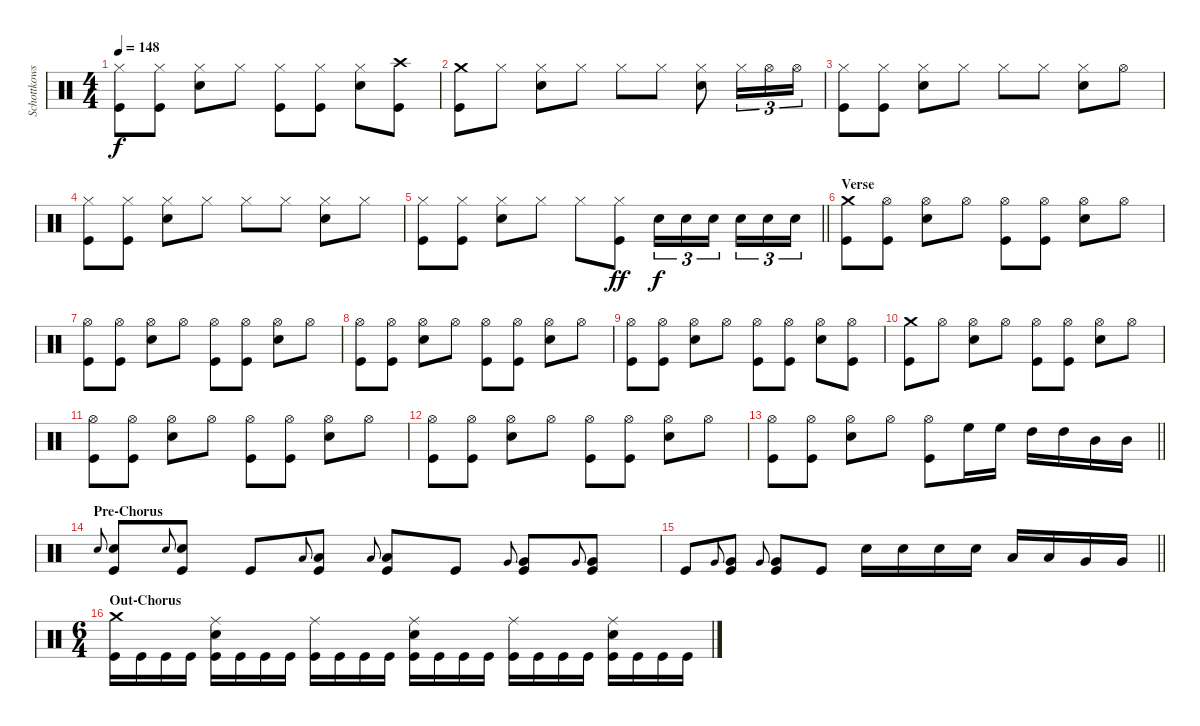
\track ("Schottkowski" "Schottkows") {instrument percussion}
\staff {score}
\articulation defaults
\ts (4 4)
\tempo 148
\clef neutral
\ks c
("Hi-Hat (closed)" "Kick (hit)").8{dy f} ("Hi-Hat (closed)" "Kick (hit)").8 ("Hi-Hat (closed)" "Electric Snare (hit)").8 "Hi-Hat (closed)".8 ("Hi-Hat (closed)" "Kick (hit)").8 ("Hi-Hat (closed)" "Kick (hit)").8 ("Hi-Hat (closed)" "Electric Snare (hit)").8 ("Crash high (hit)" "Kick (hit)").8 |
("Crash medium (hit)" "Kick (hit)").8 "Hi-Hat (closed)".8 ("Hi-Hat (closed)" "Electric Snare (hit)").8 "Hi-Hat (closed)".8 "Hi-Hat (closed)".8 "Hi-Hat (closed)".8 ("Hi-Hat (closed)" "Electric Snare (hit)").8 "Hi-Hat (closed)".16{tu (3 2)} "Hi-Hat (open)".16{tu (3 2)} "Hi-Hat (open)".16{tu (3 2)} |
("Hi-Hat (closed)" "Kick (hit)").8 ("Hi-Hat (closed)" "Kick (hit)").8 ("Hi-Hat (closed)" "Electric Snare (hit)").8 "Hi-Hat (closed)".8 "Hi-Hat (closed)".8 "Hi-Hat (closed)".8 ("Hi-Hat (closed)" "Electric Snare (hit)").8 "Hi-Hat (open)".8 |
("Hi-Hat (closed)" "Kick (hit)").8 ("Hi-Hat (closed)" "Kick (hit)").8 ("Hi-Hat (closed)" "Electric Snare (hit)").8 "Hi-Hat (closed)".8 "Hi-Hat (closed)".8 "Hi-Hat (closed)".8 ("Hi-Hat (closed)" "Electric Snare (hit)").8 "Hi-Hat (closed)".8 |
\barLineRight lightlight
("Hi-Hat (closed)" "Kick (hit)").8 ("Hi-Hat (closed)" "Kick (hit)").8 ("Hi-Hat (closed)" "Electric Snare (hit)").8 "Hi-Hat (closed)".8 "Hi-Hat (closed)".8 ("Hi-Hat (closed)" "Kick (hit)").8{dy ff} "Electric Snare (hit)".16{tu (3 2) dy f} "Electric Snare (hit)".16{tu (3 2)} "Electric Snare (hit)".16{tu (3 2) beam splitsecondary} "Electric Snare (hit)".16{tu (3 2)} "Electric Snare (hit)".16{tu (3 2)} "Electric Snare (hit)".16{tu (3 2)} |
\section ("" "Verse")
("Crash medium (hit)" "Kick (hit)").8 ("Hi-Hat (open)" "Kick (hit)").8 ("Hi-Hat (open)" "Electric Snare (hit)").8 "Hi-Hat (open)".8 ("Hi-Hat (open)" "Kick (hit)").8 ("Hi-Hat (open)" "Kick (hit)").8 ("Hi-Hat (open)" "Electric Snare (hit)").8 "Hi-Hat (open)".8 |
("Hi-Hat (open)" "Kick (hit)").8 ("Hi-Hat (open)" "Kick (hit)").8 ("Hi-Hat (open)" "Electric Snare (hit)").8 "Hi-Hat (open)".8 ("Hi-Hat (open)" "Kick (hit)").8 ("Hi-Hat (open)" "Kick (hit)").8 ("Hi-Hat (open)" "Electric Snare (hit)").8 "Hi-Hat (open)".8 |
("Hi-Hat (open)" "Kick (hit)").8 ("Hi-Hat (open)" "Kick (hit)").8 ("Hi-Hat (open)" "Electric Snare (hit)").8 "Hi-Hat (open)".8 ("Hi-Hat (open)" "Kick (hit)").8 ("Hi-Hat (open)" "Kick (hit)").8 ("Hi-Hat (open)" "Electric Snare (hit)").8 "Hi-Hat (open)".8 |
("Hi-Hat (open)" "Kick (hit)").8 ("Hi-Hat (open)" "Kick (hit)").8 ("Hi-Hat (open)" "Electric Snare (hit)").8 "Hi-Hat (open)".8 ("Hi-Hat (open)" "Kick (hit)").8 ("Hi-Hat (open)" "Kick (hit)").8 ("Hi-Hat (open)" "Electric Snare (hit)").8 ("Hi-Hat (open)" "Kick (hit)").8 |
("Crash medium (hit)" "Kick (hit)").8 "Hi-Hat (open)".8 ("Hi-Hat (open)" "Electric Snare (hit)").8 "Hi-Hat (open)".8 ("Hi-Hat (open)" "Kick (hit)").8 ("Hi-Hat (open)" "Kick (hit)").8 ("Hi-Hat (open)" "Electric Snare (hit)").8 "Hi-Hat (open)".8 |
("Hi-Hat (open)" "Kick (hit)").8 ("Hi-Hat (open)" "Kick (hit)").8 ("Hi-Hat (open)" "Electric Snare (hit)").8 "Hi-Hat (open)".8 ("Hi-Hat (open)" "Kick (hit)").8 ("Hi-Hat (open)" "Kick (hit)").8 ("Hi-Hat (open)" "Electric Snare (hit)").8 "Hi-Hat (open)".8 |
("Hi-Hat (open)" "Kick (hit)").8 ("Hi-Hat (open)" "Kick (hit)").8 ("Hi-Hat (open)" "Electric Snare (hit)").8 "Hi-Hat (open)".8 ("Hi-Hat (open)" "Kick (hit)").8 ("Hi-Hat (open)" "Kick (hit)").8 ("Hi-Hat (open)" "Electric Snare (hit)").8 "Hi-Hat (open)".8 |
\barLineRight lightlight
("Hi-Hat (open)" "Kick (hit)").8 ("Hi-Hat (open)" "Kick (hit)").8 ("Hi-Hat (open)" "Electric Snare (hit)").8 "Hi-Hat (open)".8 ("Hi-Hat (open)" "Kick (hit)").8 "High Floor Tom (hit)".16 "High Floor Tom (hit)".16 "High Tom (hit)".16 "High Tom (hit)".16 "Mid Tom (hit)".16 "Mid Tom (hit)".16 |
\section ("" "Pre-Chorus")
"Electric Snare (hit)".8{gr onbeat} ("Electric Snare (hit)" "Kick (hit)").8 "Electric Snare (hit)".8{gr onbeat} ("Electric Snare (hit)" "Kick (hit)").8 "Kick (hit)".8 "Low Tom (hit)".8{gr onbeat} ("Low Tom (hit)" "Kick (hit)").8 "Low Tom (hit)".8{gr onbeat} ("Low Tom (hit)" "Kick (hit)").8 "Kick (hit)".8 "Very Low Tom (hit)".8{gr onbeat} ("Very Low Tom (hit)" "Kick (hit)").8 "Very Low Tom (hit)".8{gr onbeat} ("Very Low Tom (hit)" "Kick (hit)").8 |
\barLineRight lightlight "Kick (hit)".8 "Very Low Tom (hit)".8{gr onbeat}
("Very Low Tom (hit)" "Kick (hit)").8 "Very Low Tom (hit)".8{gr onbeat} ("Very Low Tom (hit)" "Kick (hit)").8 "Kick (hit)".8 "Electric Snare (hit)".16 "Electric Snare (hit)".16 "Electric Snare (hit)".16 "Electric Snare (hit)".16 "Low Tom (hit)".16 "Low Tom (hit)".16 "Very Low Tom (hit)".16 "Very Low Tom (hit)".16 |
\ts (6 4)
\section ("" "Out-Chorus")
("Crash medium (hit)" "Kick (hit)").16 "Kick (hit)".16 "Kick (hit)".16 "Kick (hit)".16 ("Ride (middle)" "Electric Snare (hit)" "Kick (hit)").16 "Kick (hit)".16 "Kick (hit)".16 "Kick (hit)".16 ("Ride (middle)" "Kick (hit)").16 "Kick (hit)".16 "Kick (hit)".16 "Kick (hit)".16 ("Ride (middle)" "Electric Snare (hit)" "Kick (hit)").16 "Kick (hit)".16 "Kick (hit)".16 "Kick (hit)".16 ("Ride (middle)" "Kick (hit)").16 "Kick (hit)".16 "Kick (hit)".16 "Kick (hit)".16 ("Ride (middle)" "Electric Snare (hit)" "Kick (hit)").16 "Kick (hit)".16 "Kick (hit)".16 "Kick (hit)".16
